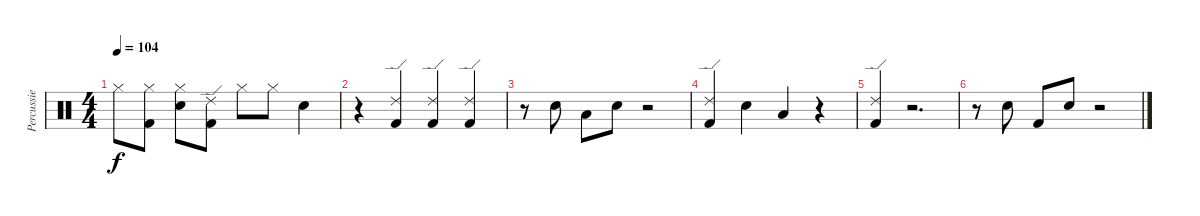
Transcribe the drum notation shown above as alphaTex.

\track ("Percussie" "Percussie") {instrument percussion}
\staff {score}
\articulation defaults
\ts (4 4)
\tempo 104
\clef neutral
\ks c "Hi-Hat (closed)".8{dy f}
("Hi-Hat (closed)" "Kick (hit) 2").8 ("Hi-Hat (closed)" "Snare (hit) 2").8 ("Kick (hit) 2" "Ride (edge) 2").8 "Hi-Hat (closed)".8 "Hi-Hat (closed)".8 "Snare (hit) 2".4 |
r.4 ("Kick (hit) 2" "Ride (edge) 2").4 ("Kick (hit) 2" "Ride (edge) 2").4 ("Kick (hit) 2" "Ride (edge) 2").4 |
r.8 "Snare (hit) 2".8 "Low Tom (hit)".8 "Snare (hit) 2".8 r.2 |
("Kick (hit) 2" "Ride (edge) 2").4 "Snare (hit) 2".4 "Low Floor Tom (hit)".4 r.4 |
("Kick (hit) 2" "Ride (edge) 2").4 r.2{d} |
r.8 "Snare (hit) 2".8 "Kick (hit) 2".8 "Snare (hit) 2".8 r.2
